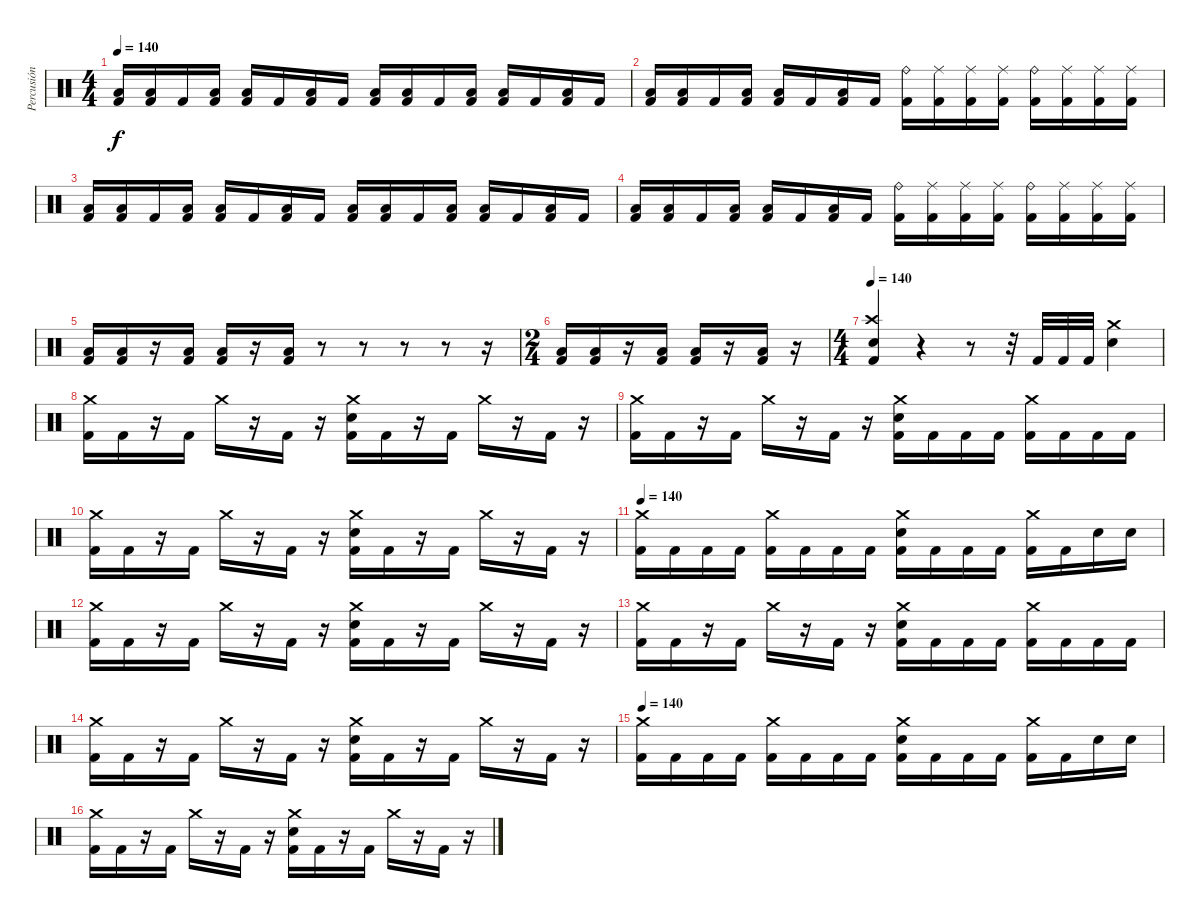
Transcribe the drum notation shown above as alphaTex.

\track ("Percusión" "Percusión") {instrument percussion}
\staff {score}
\articulation defaults
\ts (4 4)
\tempo 140
\clef neutral
\ks c
("Low Floor Tom (hit)" "Kick (hit) 2").16{dy f} ("Low Floor Tom (hit)" "Kick (hit) 2").16 "Kick (hit) 2".16 ("Low Floor Tom (hit)" "Kick (hit) 2").16 ("Low Floor Tom (hit)" "Kick (hit) 2").16 "Kick (hit) 2".16 ("Low Floor Tom (hit)" "Kick (hit) 2").16 "Kick (hit) 2".16 ("Low Floor Tom (hit)" "Kick (hit) 2").16 ("Low Floor Tom (hit)" "Kick (hit) 2").16 "Kick (hit) 2".16 ("Low Floor Tom (hit)" "Kick (hit) 2").16 ("Low Floor Tom (hit)" "Kick (hit) 2").16 "Kick (hit) 2".16 ("Low Floor Tom (hit)" "Kick (hit) 2").16 "Kick (hit) 2".16 |
("Low Floor Tom (hit)" "Kick (hit) 2").16 ("Low Floor Tom (hit)" "Kick (hit) 2").16 "Kick (hit) 2".16 ("Low Floor Tom (hit)" "Kick (hit) 2").16 ("Low Floor Tom (hit)" "Kick (hit) 2").16 "Kick (hit) 2".16 ("Low Floor Tom (hit)" "Kick (hit) 2").16 "Kick (hit) 2".16 ("Ride (bell)" "Kick (hit) 2").16 ("Ride (middle)" "Kick (hit) 2").16 ("Ride (middle)" "Kick (hit) 2").16 ("Ride (middle)" "Kick (hit) 2").16 ("Ride (bell)" "Kick (hit) 2").16 ("Ride (middle)" "Kick (hit) 2").16 ("Ride (middle)" "Kick (hit) 2").16 ("Ride (middle)" "Kick (hit) 2").16 |
("Low Floor Tom (hit)" "Kick (hit) 2").16 ("Low Floor Tom (hit)" "Kick (hit) 2").16 "Kick (hit) 2".16 ("Low Floor Tom (hit)" "Kick (hit) 2").16 ("Low Floor Tom (hit)" "Kick (hit) 2").16 "Kick (hit) 2".16 ("Low Floor Tom (hit)" "Kick (hit) 2").16 "Kick (hit) 2".16 ("Low Floor Tom (hit)" "Kick (hit) 2").16 ("Low Floor Tom (hit)" "Kick (hit) 2").16 "Kick (hit) 2".16 ("Low Floor Tom (hit)" "Kick (hit) 2").16 ("Low Floor Tom (hit)" "Kick (hit) 2").16 "Kick (hit) 2".16 ("Low Floor Tom (hit)" "Kick (hit) 2").16 "Kick (hit) 2".16 |
("Low Floor Tom (hit)" "Kick (hit) 2").16 ("Low Floor Tom (hit)" "Kick (hit) 2").16 "Kick (hit) 2".16 ("Low Floor Tom (hit)" "Kick (hit) 2").16 ("Low Floor Tom (hit)" "Kick (hit) 2").16 "Kick (hit) 2".16 ("Low Floor Tom (hit)" "Kick (hit) 2").16 "Kick (hit) 2".16 ("Ride (bell)" "Kick (hit) 2").16 ("Ride (middle)" "Kick (hit) 2").16 ("Ride (middle)" "Kick (hit) 2").16 ("Ride (middle)" "Kick (hit) 2").16 ("Ride (bell)" "Kick (hit) 2").16 ("Ride (middle)" "Kick (hit) 2").16 ("Ride (middle)" "Kick (hit) 2").16 ("Ride (middle)" "Kick (hit) 2").16 |
("Low Floor Tom (hit)" "Kick (hit) 2").16 ("Low Floor Tom (hit)" "Kick (hit) 2").16 r.16 ("Low Floor Tom (hit)" "Kick (hit) 2").16 ("Low Floor Tom (hit)" "Kick (hit) 2").16 r.16 ("Low Floor Tom (hit)" "Kick (hit) 2").16 r.8 r.8 r.8 r.8 r.16 |
\ts (2 4)
("Low Floor Tom (hit)" "Kick (hit) 2").16 ("Low Floor Tom (hit)" "Kick (hit) 2").16 r.16 ("Low Floor Tom (hit)" "Kick (hit) 2").16 ("Low Floor Tom (hit)" "Kick (hit) 2").16 r.16 ("Low Floor Tom (hit)" "Kick (hit) 2").16 r.16 |
\ts (4 4)
\tempo 140
("Crash high (hit)" "Electric Snare (hit)" "Kick (hit) 2").4 r.4 r.8 r.32 "Kick (hit) 2".32 "Kick (hit) 2".32 "Kick (hit) 2".32 ("Crash medium (hit)" "Electric Snare (hit)").4 |
("Crash medium (hit)" "Kick (hit) 2").16 "Kick (hit) 2".16 r.16 "Kick (hit) 2".16 "Crash medium (hit)".16 r.16 "Kick (hit) 2".16 r.16 ("Crash medium (hit)" "Electric Snare (hit)" "Kick (hit) 2").16 "Kick (hit) 2".16 r.16 "Kick (hit) 2".16 "Crash medium (hit)".16 r.16 "Kick (hit) 2".16 r.16 |
("Crash medium (hit)" "Kick (hit) 2").16 "Kick (hit) 2".16 r.16 "Kick (hit) 2".16 "Crash medium (hit)".16 r.16 "Kick (hit) 2".16 r.16 ("Crash medium (hit)" "Electric Snare (hit)" "Kick (hit) 2").16 "Kick (hit) 2".16 "Kick (hit) 2".16 "Kick (hit) 2".16 ("Crash medium (hit)" "Kick (hit) 2").16 "Kick (hit) 2".16 "Kick (hit) 2".16 "Kick (hit) 2".16 |
("Crash medium (hit)" "Kick (hit) 2").16 "Kick (hit) 2".16 r.16 "Kick (hit) 2".16 "Crash medium (hit)".16 r.16 "Kick (hit) 2".16 r.16 ("Crash medium (hit)" "Electric Snare (hit)" "Kick (hit) 2").16 "Kick (hit) 2".16 r.16 "Kick (hit) 2".16 "Crash medium (hit)".16 r.16 "Kick (hit) 2".16 r.16 |
\tempo 140
("Crash medium (hit)" "Kick (hit) 2").16 "Kick (hit) 2".16 "Kick (hit) 2".16 "Kick (hit) 2".16 ("Crash medium (hit)" "Kick (hit) 2").16 "Kick (hit) 2".16 "Kick (hit) 2".16 "Kick (hit) 2".16 ("Crash medium (hit)" "Electric Snare (hit)" "Kick (hit) 2").16 "Kick (hit) 2".16 "Kick (hit) 2".16 "Kick (hit) 2".16 ("Crash medium (hit)" "Kick (hit) 2").16 "Kick (hit) 2".16 "Electric Snare (hit)".16 "Electric Snare (hit)".16 |
("Crash medium (hit)" "Kick (hit) 2").16 "Kick (hit) 2".16 r.16 "Kick (hit) 2".16 "Crash medium (hit)".16 r.16 "Kick (hit) 2".16 r.16 ("Crash medium (hit)" "Electric Snare (hit)" "Kick (hit) 2").16 "Kick (hit) 2".16 r.16 "Kick (hit) 2".16 "Crash medium (hit)".16 r.16 "Kick (hit) 2".16 r.16 |
("Crash medium (hit)" "Kick (hit) 2").16 "Kick (hit) 2".16 r.16 "Kick (hit) 2".16 "Crash medium (hit)".16 r.16 "Kick (hit) 2".16 r.16 ("Crash medium (hit)" "Electric Snare (hit)" "Kick (hit) 2").16 "Kick (hit) 2".16 "Kick (hit) 2".16 "Kick (hit) 2".16 ("Crash medium (hit)" "Kick (hit) 2").16 "Kick (hit) 2".16 "Kick (hit) 2".16 "Kick (hit) 2".16 |
("Crash medium (hit)" "Kick (hit) 2").16 "Kick (hit) 2".16 r.16 "Kick (hit) 2".16 "Crash medium (hit)".16 r.16 "Kick (hit) 2".16 r.16 ("Crash medium (hit)" "Electric Snare (hit)" "Kick (hit) 2").16 "Kick (hit) 2".16 r.16 "Kick (hit) 2".16 "Crash medium (hit)".16 r.16 "Kick (hit) 2".16 r.16 |
\tempo 140
("Crash medium (hit)" "Kick (hit) 2").16 "Kick (hit) 2".16 "Kick (hit) 2".16 "Kick (hit) 2".16 ("Crash medium (hit)" "Kick (hit) 2").16 "Kick (hit) 2".16 "Kick (hit) 2".16 "Kick (hit) 2".16 ("Crash medium (hit)" "Electric Snare (hit)" "Kick (hit) 2").16 "Kick (hit) 2".16 "Kick (hit) 2".16 "Kick (hit) 2".16 ("Crash medium (hit)" "Kick (hit) 2").16 "Kick (hit) 2".16 "Electric Snare (hit)".16 "Electric Snare (hit)".16 |
("Crash medium (hit)" "Kick (hit) 2").16 "Kick (hit) 2".16 r.16 "Kick (hit) 2".16 "Crash medium (hit)".16 r.16 "Kick (hit) 2".16 r.16 ("Crash medium (hit)" "Electric Snare (hit)" "Kick (hit) 2").16 "Kick (hit) 2".16 r.16 "Kick (hit) 2".16 "Crash medium (hit)".16 r.16 "Kick (hit) 2".16 r.16
